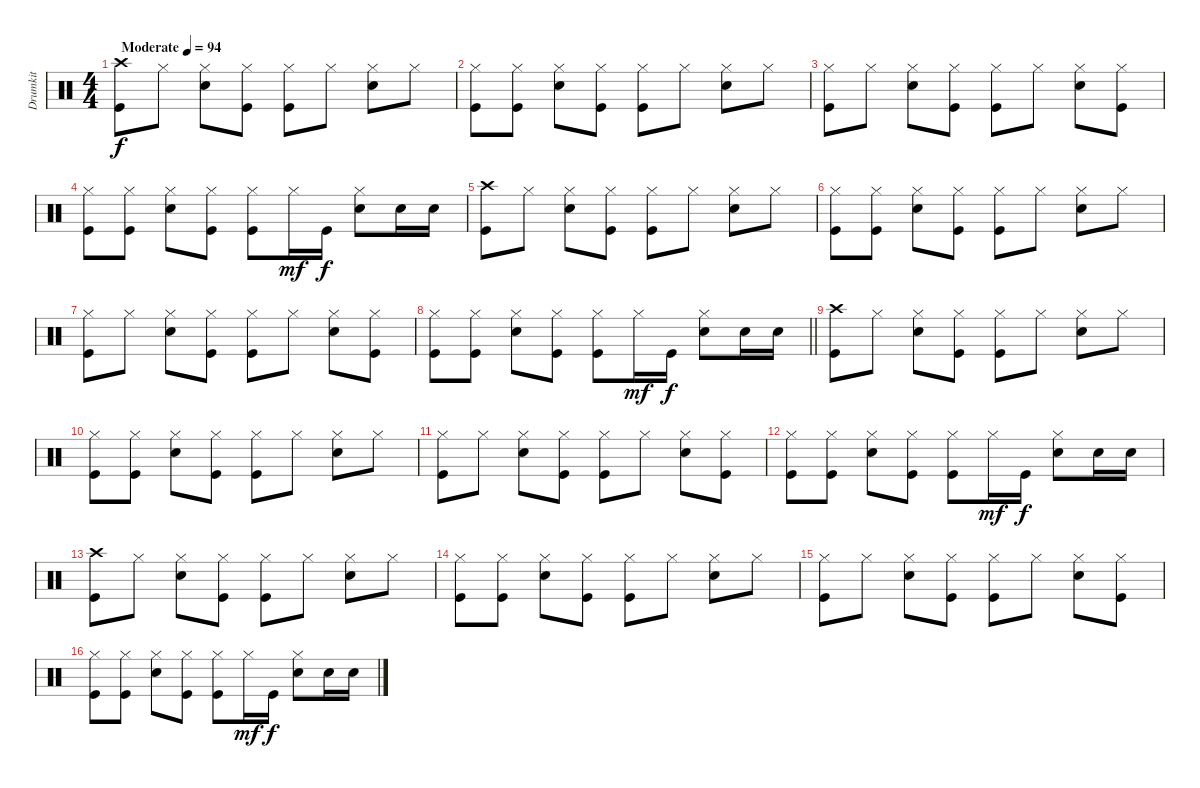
\track ("Drumkit" "Drumkit") {instrument percussion}
\staff {score}
\articulation defaults
\ts (4 4)
\tempo (94 "Moderate")
\clef neutral
\ks c
("Crash high (hit)" "Kick (hit)").8{dy f} "Hi-Hat (closed)".8 ("Hi-Hat (closed)" "Snare (hit) 2").8 ("Hi-Hat (closed)" "Kick (hit)").8 ("Hi-Hat (closed)" "Kick (hit)").8 "Hi-Hat (closed)".8 ("Hi-Hat (closed)" "Snare (hit) 2").8 "Hi-Hat (closed)".8 |
("Hi-Hat (closed)" "Kick (hit)").8 ("Hi-Hat (closed)" "Kick (hit)").8 ("Hi-Hat (closed)" "Snare (hit) 2").8 ("Hi-Hat (closed)" "Kick (hit)").8 ("Hi-Hat (closed)" "Kick (hit)").8 "Hi-Hat (closed)".8 ("Hi-Hat (closed)" "Snare (hit) 2").8 "Hi-Hat (closed)".8 |
("Hi-Hat (closed)" "Kick (hit)").8 "Hi-Hat (closed)".8 ("Hi-Hat (closed)" "Snare (hit) 2").8 ("Hi-Hat (closed)" "Kick (hit)").8 ("Hi-Hat (closed)" "Kick (hit)").8 "Hi-Hat (closed)".8 ("Hi-Hat (closed)" "Snare (hit) 2").8 ("Hi-Hat (closed)" "Kick (hit)").8 |
("Hi-Hat (closed)" "Kick (hit)").8 ("Hi-Hat (closed)" "Kick (hit)").8 ("Hi-Hat (closed)" "Snare (hit) 2").8 ("Hi-Hat (closed)" "Kick (hit)").8 ("Hi-Hat (closed)" "Kick (hit)").8 "Hi-Hat (closed)".16{dy mf} "Kick (hit)".16{dy f} ("Hi-Hat (closed)" "Snare (hit) 2").8 "Snare (hit) 2".16 "Snare (hit) 2".16 |
("Crash high (hit)" "Kick (hit)").8 "Hi-Hat (closed)".8 ("Hi-Hat (closed)" "Snare (hit) 2").8 ("Hi-Hat (closed)" "Kick (hit)").8 ("Hi-Hat (closed)" "Kick (hit)").8 "Hi-Hat (closed)".8 ("Hi-Hat (closed)" "Snare (hit) 2").8 "Hi-Hat (closed)".8 |
("Hi-Hat (closed)" "Kick (hit)").8 ("Hi-Hat (closed)" "Kick (hit)").8 ("Hi-Hat (closed)" "Snare (hit) 2").8 ("Hi-Hat (closed)" "Kick (hit)").8 ("Hi-Hat (closed)" "Kick (hit)").8 "Hi-Hat (closed)".8 ("Hi-Hat (closed)" "Snare (hit) 2").8 "Hi-Hat (closed)".8 |
("Hi-Hat (closed)" "Kick (hit)").8 "Hi-Hat (closed)".8 ("Hi-Hat (closed)" "Snare (hit) 2").8 ("Hi-Hat (closed)" "Kick (hit)").8 ("Hi-Hat (closed)" "Kick (hit)").8 "Hi-Hat (closed)".8 ("Hi-Hat (closed)" "Snare (hit) 2").8 ("Hi-Hat (closed)" "Kick (hit)").8 |
\barLineRight lightlight
("Hi-Hat (closed)" "Kick (hit)").8 ("Hi-Hat (closed)" "Kick (hit)").8 ("Hi-Hat (closed)" "Snare (hit) 2").8 ("Hi-Hat (closed)" "Kick (hit)").8 ("Hi-Hat (closed)" "Kick (hit)").8 "Hi-Hat (closed)".16{dy mf} "Kick (hit)".16{dy f} ("Hi-Hat (closed)" "Snare (hit) 2").8 "Snare (hit) 2".16 "Snare (hit) 2".16 |
("Crash high (hit)" "Kick (hit)").8 "Hi-Hat (closed)".8 ("Hi-Hat (closed)" "Snare (hit) 2").8 ("Hi-Hat (closed)" "Kick (hit)").8 ("Hi-Hat (closed)" "Kick (hit)").8 "Hi-Hat (closed)".8 ("Hi-Hat (closed)" "Snare (hit) 2").8 "Hi-Hat (closed)".8 |
("Hi-Hat (closed)" "Kick (hit)").8 ("Hi-Hat (closed)" "Kick (hit)").8 ("Hi-Hat (closed)" "Snare (hit) 2").8 ("Hi-Hat (closed)" "Kick (hit)").8 ("Hi-Hat (closed)" "Kick (hit)").8 "Hi-Hat (closed)".8 ("Hi-Hat (closed)" "Snare (hit) 2").8 "Hi-Hat (closed)".8 |
("Hi-Hat (closed)" "Kick (hit)").8 "Hi-Hat (closed)".8 ("Hi-Hat (closed)" "Snare (hit) 2").8 ("Hi-Hat (closed)" "Kick (hit)").8 ("Hi-Hat (closed)" "Kick (hit)").8 "Hi-Hat (closed)".8 ("Hi-Hat (closed)" "Snare (hit) 2").8 ("Hi-Hat (closed)" "Kick (hit)").8 |
("Hi-Hat (closed)" "Kick (hit)").8 ("Hi-Hat (closed)" "Kick (hit)").8 ("Hi-Hat (closed)" "Snare (hit) 2").8 ("Hi-Hat (closed)" "Kick (hit)").8 ("Hi-Hat (closed)" "Kick (hit)").8 "Hi-Hat (closed)".16{dy mf} "Kick (hit)".16{dy f} ("Hi-Hat (closed)" "Snare (hit) 2").8 "Snare (hit) 2".16 "Snare (hit) 2".16 |
("Crash high (hit)" "Kick (hit)").8 "Hi-Hat (closed)".8 ("Hi-Hat (closed)" "Snare (hit) 2").8 ("Hi-Hat (closed)" "Kick (hit)").8 ("Hi-Hat (closed)" "Kick (hit)").8 "Hi-Hat (closed)".8 ("Hi-Hat (closed)" "Snare (hit) 2").8 "Hi-Hat (closed)".8 |
("Hi-Hat (closed)" "Kick (hit)").8 ("Hi-Hat (closed)" "Kick (hit)").8 ("Hi-Hat (closed)" "Snare (hit) 2").8 ("Hi-Hat (closed)" "Kick (hit)").8 ("Hi-Hat (closed)" "Kick (hit)").8 "Hi-Hat (closed)".8 ("Hi-Hat (closed)" "Snare (hit) 2").8 "Hi-Hat (closed)".8 |
("Hi-Hat (closed)" "Kick (hit)").8 "Hi-Hat (closed)".8 ("Hi-Hat (closed)" "Snare (hit) 2").8 ("Hi-Hat (closed)" "Kick (hit)").8 ("Hi-Hat (closed)" "Kick (hit)").8 "Hi-Hat (closed)".8 ("Hi-Hat (closed)" "Snare (hit) 2").8 ("Hi-Hat (closed)" "Kick (hit)").8 |
("Hi-Hat (closed)" "Kick (hit)").8 ("Hi-Hat (closed)" "Kick (hit)").8 ("Hi-Hat (closed)" "Snare (hit) 2").8 ("Hi-Hat (closed)" "Kick (hit)").8 ("Hi-Hat (closed)" "Kick (hit)").8 "Hi-Hat (closed)".16{dy mf} "Kick (hit)".16{dy f} ("Hi-Hat (closed)" "Snare (hit) 2").8 "Snare (hit) 2".16 "Snare (hit) 2".16
